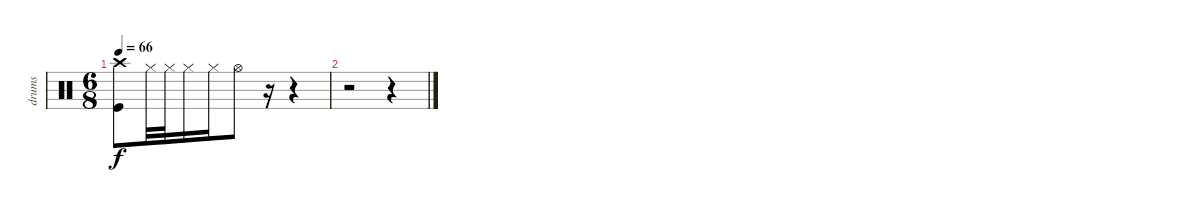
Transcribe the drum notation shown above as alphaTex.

\track ("drums" "drums") {instrument percussion}
\staff {score}
\articulation defaults
\ts (6 8)
\tempo 66
\clef neutral
\ks c
("Crash high (hit)" "Kick (hit)").8{dy f} "Hi-Hat (closed)".32 "Hi-Hat (closed)".32 "Hi-Hat (closed)".16 "Hi-Hat (closed)".16 "Hi-Hat (open)".8 r.16 r.4 |
r.2 r.4
